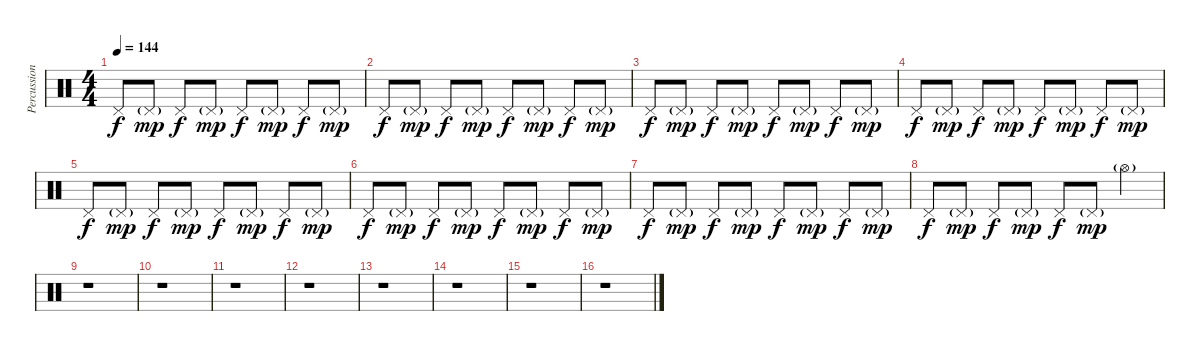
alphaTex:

\track ("Percussion" "Percussion") {instrument percussion}
\staff {score}
\articulation defaults
\ts (4 4)
\tempo 144
\clef neutral
\ks c "Pedal Hi-Hat (hit)".8{dy f} "Pedal Hi-Hat (hit)"{g}.8{dy mp} "Pedal Hi-Hat (hit)".8{dy f} "Pedal Hi-Hat (hit)"{g}.8{dy mp} "Pedal Hi-Hat (hit)".8{dy f} "Pedal Hi-Hat (hit)"{g}.8{dy mp} "Pedal Hi-Hat (hit)".8{dy f} "Pedal Hi-Hat (hit)"{g}.8{dy mp}
|
"Pedal Hi-Hat (hit)".8{dy f} "Pedal Hi-Hat (hit)"{g}.8{dy mp} "Pedal Hi-Hat (hit)".8{dy f} "Pedal Hi-Hat (hit)"{g}.8{dy mp} "Pedal Hi-Hat (hit)".8{dy f} "Pedal Hi-Hat (hit)"{g}.8{dy mp} "Pedal Hi-Hat (hit)".8{dy f} "Pedal Hi-Hat (hit)"{g}.8{dy mp} |
"Pedal Hi-Hat (hit)".8{dy f} "Pedal Hi-Hat (hit)"{g}.8{dy mp} "Pedal Hi-Hat (hit)".8{dy f} "Pedal Hi-Hat (hit)"{g}.8{dy mp} "Pedal Hi-Hat (hit)".8{dy f} "Pedal Hi-Hat (hit)"{g}.8{dy mp} "Pedal Hi-Hat (hit)".8{dy f} "Pedal Hi-Hat (hit)"{g}.8{dy mp} |
"Pedal Hi-Hat (hit)".8{dy f} "Pedal Hi-Hat (hit)"{g}.8{dy mp} "Pedal Hi-Hat (hit)".8{dy f} "Pedal Hi-Hat (hit)"{g}.8{dy mp} "Pedal Hi-Hat (hit)".8{dy f} "Pedal Hi-Hat (hit)"{g}.8{dy mp} "Pedal Hi-Hat (hit)".8{dy f} "Pedal Hi-Hat (hit)"{g}.8{dy mp} |
"Pedal Hi-Hat (hit)".8{dy f} "Pedal Hi-Hat (hit)"{g}.8{dy mp} "Pedal Hi-Hat (hit)".8{dy f} "Pedal Hi-Hat (hit)"{g}.8{dy mp} "Pedal Hi-Hat (hit)".8{dy f} "Pedal Hi-Hat (hit)"{g}.8{dy mp} "Pedal Hi-Hat (hit)".8{dy f} "Pedal Hi-Hat (hit)"{g}.8{dy mp} |
"Pedal Hi-Hat (hit)".8{dy f} "Pedal Hi-Hat (hit)"{g}.8{dy mp} "Pedal Hi-Hat (hit)".8{dy f} "Pedal Hi-Hat (hit)"{g}.8{dy mp} "Pedal Hi-Hat (hit)".8{dy f} "Pedal Hi-Hat (hit)"{g}.8{dy mp} "Pedal Hi-Hat (hit)".8{dy f} "Pedal Hi-Hat (hit)"{g}.8{dy mp} |
"Pedal Hi-Hat (hit)".8{dy f} "Pedal Hi-Hat (hit)"{g}.8{dy mp} "Pedal Hi-Hat (hit)".8{dy f} "Pedal Hi-Hat (hit)"{g}.8{dy mp} "Pedal Hi-Hat (hit)".8{dy f} "Pedal Hi-Hat (hit)"{g}.8{dy mp} "Pedal Hi-Hat (hit)".8{dy f} "Pedal Hi-Hat (hit)"{g}.8{dy mp} |
"Pedal Hi-Hat (hit)".8{dy f} "Pedal Hi-Hat (hit)"{g}.8{dy mp} "Pedal Hi-Hat (hit)".8{dy f} "Pedal Hi-Hat (hit)"{g}.8{dy mp} "Pedal Hi-Hat (hit)".8{dy f} "Pedal Hi-Hat (hit)"{g}.8{dy mp} "Hi-Hat (open)"{g}.4 |
r.1 |
r.1 |
r.1 |
r.1 |
r.1 |
r.1 |
r.1 |
r.1
